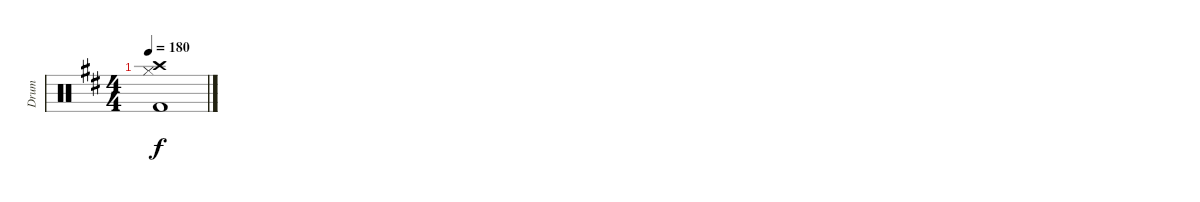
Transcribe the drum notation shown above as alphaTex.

\track ("Drum" "Drum") {instrument percussion}
\staff {score}
\articulation defaults
\ts (4 4)
\tempo 180
\clef neutral
\ks d
("Crash high (hit)" "Hi-Hat (closed)" "Kick (hit) 2").1{dy f}
